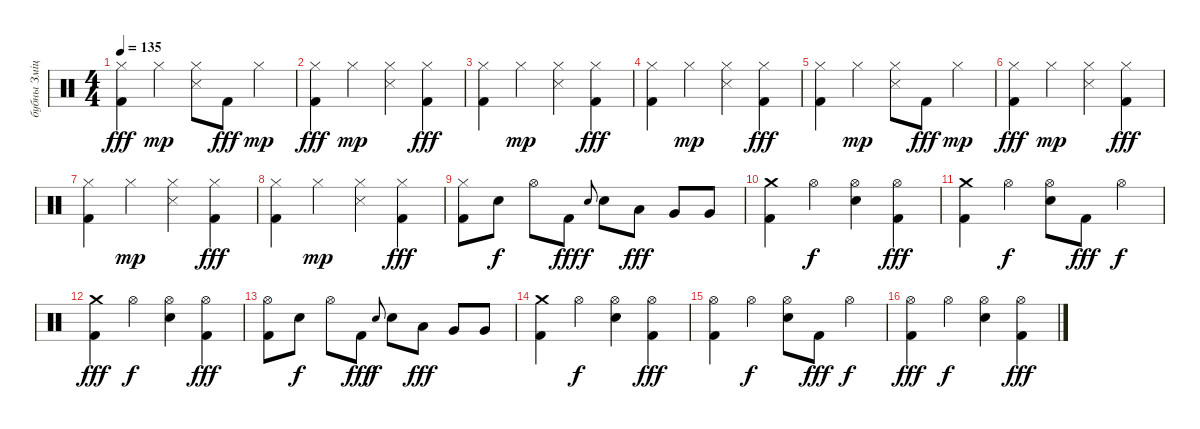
\track ("бубны Змiцер" "бубны Змiц") {solo instrument percussion}
\staff {score}
\articulation defaults
\ts (4 4)
\tempo 135
\clef neutral
\ks c
("Hi-Hat (closed)" "Kick (hit) 2").4{dy fff} "Hi-Hat (closed)".4{dy mp} ("Hi-Hat (closed)" "Snare (side stick) 3").8 "Kick (hit) 2".8{dy fff} "Hi-Hat (closed)".4{dy mp} |
("Hi-Hat (closed)" "Kick (hit) 2").4{dy fff} "Hi-Hat (closed)".4{dy mp} ("Hi-Hat (closed)" "Snare (side stick) 3").4 ("Hi-Hat (closed)" "Kick (hit) 2").4{dy fff} |
("Hi-Hat (closed)" "Kick (hit) 2").4 "Hi-Hat (closed)".4{dy mp} ("Hi-Hat (closed)" "Snare (side stick) 3").4 ("Hi-Hat (closed)" "Kick (hit) 2").4{dy fff} |
("Hi-Hat (closed)" "Kick (hit) 2").4 "Hi-Hat (closed)".4{dy mp} ("Hi-Hat (closed)" "Snare (side stick) 3").4 ("Hi-Hat (closed)" "Kick (hit) 2").4{dy fff} |
("Hi-Hat (closed)" "Kick (hit) 2").4 "Hi-Hat (closed)".4{dy mp} ("Hi-Hat (closed)" "Snare (side stick) 3").8 "Kick (hit) 2".8{dy fff} "Hi-Hat (closed)".4{dy mp} |
("Hi-Hat (closed)" "Kick (hit) 2").4{dy fff} "Hi-Hat (closed)".4{dy mp} ("Hi-Hat (closed)" "Snare (side stick) 3").4 ("Hi-Hat (closed)" "Kick (hit) 2").4{dy fff} |
("Hi-Hat (closed)" "Kick (hit) 2").4 "Hi-Hat (closed)".4{dy mp} ("Hi-Hat (closed)" "Snare (side stick) 3").4 ("Hi-Hat (closed)" "Kick (hit) 2").4{dy fff} |
("Hi-Hat (closed)" "Kick (hit) 2").4 "Hi-Hat (closed)".4{dy mp} ("Hi-Hat (closed)" "Snare (side stick) 3").4 ("Hi-Hat (closed)" "Kick (hit) 2").4{dy fff} |
("Hi-Hat (closed)" "Kick (hit) 2").8 "Electric Snare (hit)".8{dy f} "Hi-Hat (open)".8 "Kick (hit) 2".8{dy fff} "Electric Snare (hit)".8{gr onbeat dy f} "Electric Snare (hit)".8 "Low Tom (hit)".8{dy fff} "Very Low Tom (hit)".8 "Very Low Tom (hit)".8 |
("Crash medium (hit)" "Kick (hit) 2").4 "Hi-Hat (open)".4{dy f} ("Hi-Hat (open)" "Electric Snare (hit)").4 ("Hi-Hat (open)" "Kick (hit) 2").4{dy fff} |
("Crash medium (hit)" "Kick (hit) 2").4 "Hi-Hat (open)".4{dy f} ("Hi-Hat (open)" "Electric Snare (hit)").8 "Kick (hit) 2".8{dy fff} "Hi-Hat (open)".4{dy f} |
("Crash medium (hit)" "Kick (hit) 2").4{dy fff} "Hi-Hat (open)".4{dy f} ("Hi-Hat (open)" "Electric Snare (hit)").4 ("Hi-Hat (open)" "Kick (hit) 2").4{dy fff} |
("Hi-Hat (open)" "Kick (hit) 2").8 "Electric Snare (hit)".8{dy f} "Hi-Hat (open)".8 "Kick (hit) 2".8{dy fff} "Electric Snare (hit)".8{gr onbeat dy f} "Electric Snare (hit)".8 "Low Tom (hit)".8{dy fff} "Very Low Tom (hit)".8 "Very Low Tom (hit)".8 |
("Crash medium (hit)" "Kick (hit) 2").4 "Hi-Hat (open)".4{dy f} ("Hi-Hat (open)" "Electric Snare (hit)").4 ("Hi-Hat (open)" "Kick (hit) 2").4{dy fff} |
("Hi-Hat (open)" "Kick (hit) 2").4 "Hi-Hat (open)".4{dy f} ("Hi-Hat (open)" "Electric Snare (hit)").8 "Kick (hit) 2".8{dy fff} "Hi-Hat (open)".4{dy f} |
("Hi-Hat (open)" "Kick (hit) 2").4{dy fff} "Hi-Hat (open)".4{dy f} ("Hi-Hat (open)" "Electric Snare (hit)").4 ("Hi-Hat (open)" "Kick (hit) 2").4{dy fff}
